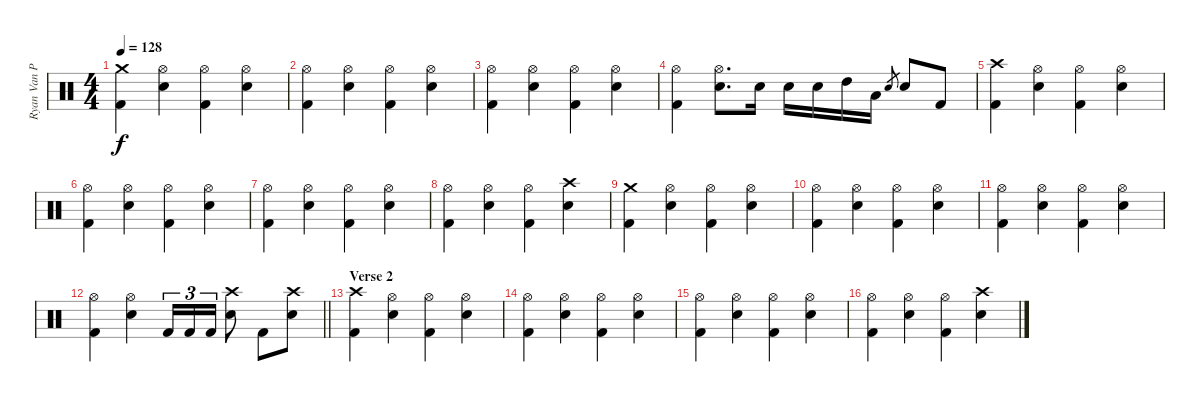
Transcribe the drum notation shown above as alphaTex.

\track ("Ryan Van Poederooyen" "Ryan Van P") {instrument percussion}
\staff {score}
\articulation defaults
\ts (4 4)
\tempo 128
\clef neutral
\ks c
("Crash medium (hit)" "Kick (hit) 2").4{dy f} ("Hi-Hat (open)" "Electric Snare (hit)").4 ("Hi-Hat (open)" "Kick (hit) 2").4 ("Hi-Hat (open)" "Electric Snare (hit)").4 |
("Hi-Hat (open)" "Kick (hit) 2").4 ("Hi-Hat (open)" "Electric Snare (hit)").4 ("Hi-Hat (open)" "Kick (hit) 2").4 ("Hi-Hat (open)" "Electric Snare (hit)").4 |
("Hi-Hat (open)" "Kick (hit) 2").4 ("Hi-Hat (open)" "Electric Snare (hit)").4 ("Hi-Hat (open)" "Kick (hit) 2").4 ("Hi-Hat (open)" "Electric Snare (hit)").4 |
("Hi-Hat (open)" "Kick (hit) 2").4 ("Hi-Hat (open)" "Electric Snare (hit)").8{d} "Electric Snare (hit)".16 "Electric Snare (hit)".16 "Electric Snare (hit)".16 "High Tom (hit)".16 "Low Tom (hit)".16 "Electric Snare (hit)".8{gr} "Electric Snare (hit)".8 "Kick (hit) 2".8 |
("Crash high (hit)" "Kick (hit) 2").4 ("Hi-Hat (open)" "Electric Snare (hit)").4 ("Hi-Hat (open)" "Kick (hit) 2").4 ("Hi-Hat (open)" "Electric Snare (hit)").4 |
("Hi-Hat (open)" "Kick (hit) 2").4 ("Hi-Hat (open)" "Electric Snare (hit)").4 ("Hi-Hat (open)" "Kick (hit) 2").4 ("Hi-Hat (open)" "Electric Snare (hit)").4 |
("Hi-Hat (open)" "Kick (hit) 2").4 ("Hi-Hat (open)" "Electric Snare (hit)").4 ("Hi-Hat (open)" "Kick (hit) 2").4 ("Hi-Hat (open)" "Electric Snare (hit)").4 |
("Hi-Hat (open)" "Kick (hit) 2").4 ("Hi-Hat (open)" "Electric Snare (hit)").4 ("Hi-Hat (open)" "Kick (hit) 2").4 ("Crash high (hit)" "Electric Snare (hit)").4 |
("Crash medium (hit)" "Kick (hit) 2").4 ("Hi-Hat (open)" "Electric Snare (hit)").4 ("Hi-Hat (open)" "Kick (hit) 2").4 ("Hi-Hat (open)" "Electric Snare (hit)").4 |
("Hi-Hat (open)" "Kick (hit) 2").4 ("Hi-Hat (open)" "Electric Snare (hit)").4 ("Hi-Hat (open)" "Kick (hit) 2").4 ("Hi-Hat (open)" "Electric Snare (hit)").4 |
("Hi-Hat (open)" "Kick (hit) 2").4 ("Hi-Hat (open)" "Electric Snare (hit)").4 ("Hi-Hat (open)" "Kick (hit) 2").4 ("Hi-Hat (open)" "Electric Snare (hit)").4 |
\barLineRight lightlight
("Hi-Hat (open)" "Kick (hit) 2").4 ("Hi-Hat (open)" "Electric Snare (hit)").4 "Kick (hit) 2".16{tu (3 2)} "Kick (hit) 2".16{tu (3 2)} "Kick (hit) 2".16{tu (3 2)} ("Crash high (hit)" "Electric Snare (hit)").8 "Kick (hit) 2".8 ("Crash high (hit)" "Electric Snare (hit)").8 |
\section ("" "Verse 2")
("Crash high (hit)" "Kick (hit) 2").4 ("Hi-Hat (open)" "Electric Snare (hit)").4 ("Hi-Hat (open)" "Kick (hit) 2").4 ("Hi-Hat (open)" "Electric Snare (hit)").4 |
("Hi-Hat (open)" "Kick (hit) 2").4 ("Hi-Hat (open)" "Electric Snare (hit)").4 ("Hi-Hat (open)" "Kick (hit) 2").4 ("Hi-Hat (open)" "Electric Snare (hit)").4 |
("Hi-Hat (open)" "Kick (hit) 2").4 ("Hi-Hat (open)" "Electric Snare (hit)").4 ("Hi-Hat (open)" "Kick (hit) 2").4 ("Hi-Hat (open)" "Electric Snare (hit)").4 |
("Hi-Hat (open)" "Kick (hit) 2").4 ("Hi-Hat (open)" "Electric Snare (hit)").4 ("Hi-Hat (open)" "Kick (hit) 2").4 ("Crash high (hit)" "Electric Snare (hit)").4
